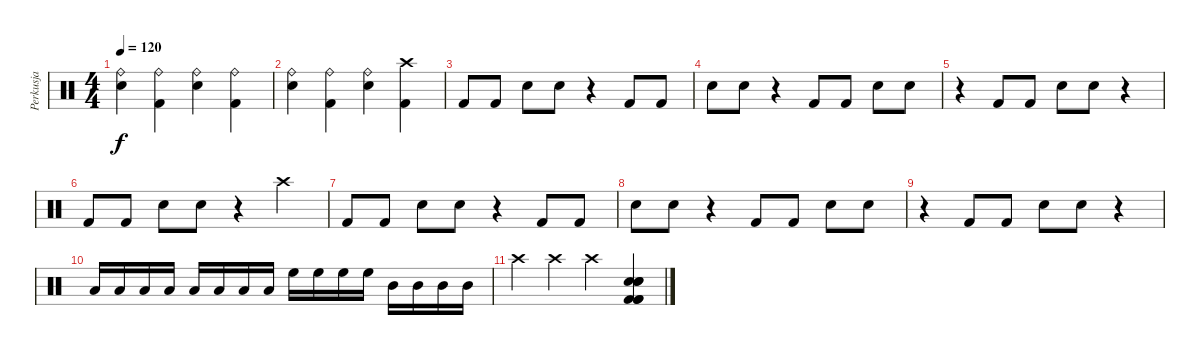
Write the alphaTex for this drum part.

\track ("Perkusja" "Perkusja") {instrument percussion}
\staff {score}
\articulation defaults
\ts (4 4)
\tempo 120
\clef neutral
\ks c
("Ride (bell)" "Snare (hit) 2").4{dy f} ("Ride (bell)" "Kick (hit) 2").4 ("Ride (bell)" "Snare (hit) 2").4 ("Ride (bell)" "Kick (hit) 2").4 |
("Ride (bell)" "Snare (hit) 2").4 ("Ride (bell)" "Kick (hit) 2").4 ("Ride (bell)" "Snare (hit) 2").4 ("Crash high (hit)" "Kick (hit) 2").4 |
"Kick (hit) 2".8 "Kick (hit) 2".8 "Snare (hit) 2".8 "Snare (hit) 2".8 r.4 "Kick (hit) 2".8 "Kick (hit) 2".8 |
"Snare (hit) 2".8 "Snare (hit) 2".8 r.4 "Kick (hit) 2".8 "Kick (hit) 2".8 "Snare (hit) 2".8 "Snare (hit) 2".8 |
r.4 "Kick (hit) 2".8 "Kick (hit) 2".8 "Snare (hit) 2".8 "Snare (hit) 2".8 r.4 |
"Kick (hit) 2".8 "Kick (hit) 2".8 "Snare (hit) 2".8 "Snare (hit) 2".8 r.4 "Crash high (hit)".4 |
"Kick (hit) 2".8 "Kick (hit) 2".8 "Snare (hit) 2".8 "Snare (hit) 2".8 r.4 "Kick (hit) 2".8 "Kick (hit) 2".8 |
"Snare (hit) 2".8 "Snare (hit) 2".8 r.4 "Kick (hit) 2".8 "Kick (hit) 2".8 "Snare (hit) 2".8 "Snare (hit) 2".8 |
r.4 "Kick (hit) 2".8 "Kick (hit) 2".8 "Snare (hit) 2".8 "Snare (hit) 2".8 r.4 |
"Low Floor Tom (hit)".16 "Low Floor Tom (hit)".16 "Low Floor Tom (hit)".16 "Low Floor Tom (hit)".16 "Low Tom (hit)".16 "Low Tom (hit)".16 "Low Tom (hit)".16 "Low Tom (hit)".16 "High Floor Tom (hit)".16 "High Floor Tom (hit)".16 "High Floor Tom (hit)".16 "High Floor Tom (hit)".16 "Mid Tom (hit)".16 "Mid Tom (hit)".16 "Mid Tom (hit)".16 "Mid Tom (hit)".16 |
"Crash high (hit)".4 "Crash high (hit)".4 "Crash high (hit)".4 ("Snare (hit) 2" "Snare (hit) 2" "Snare (hit) 2" "Kick (hit) 2" "Kick (hit) 2" "Kick (hit) 2").4
